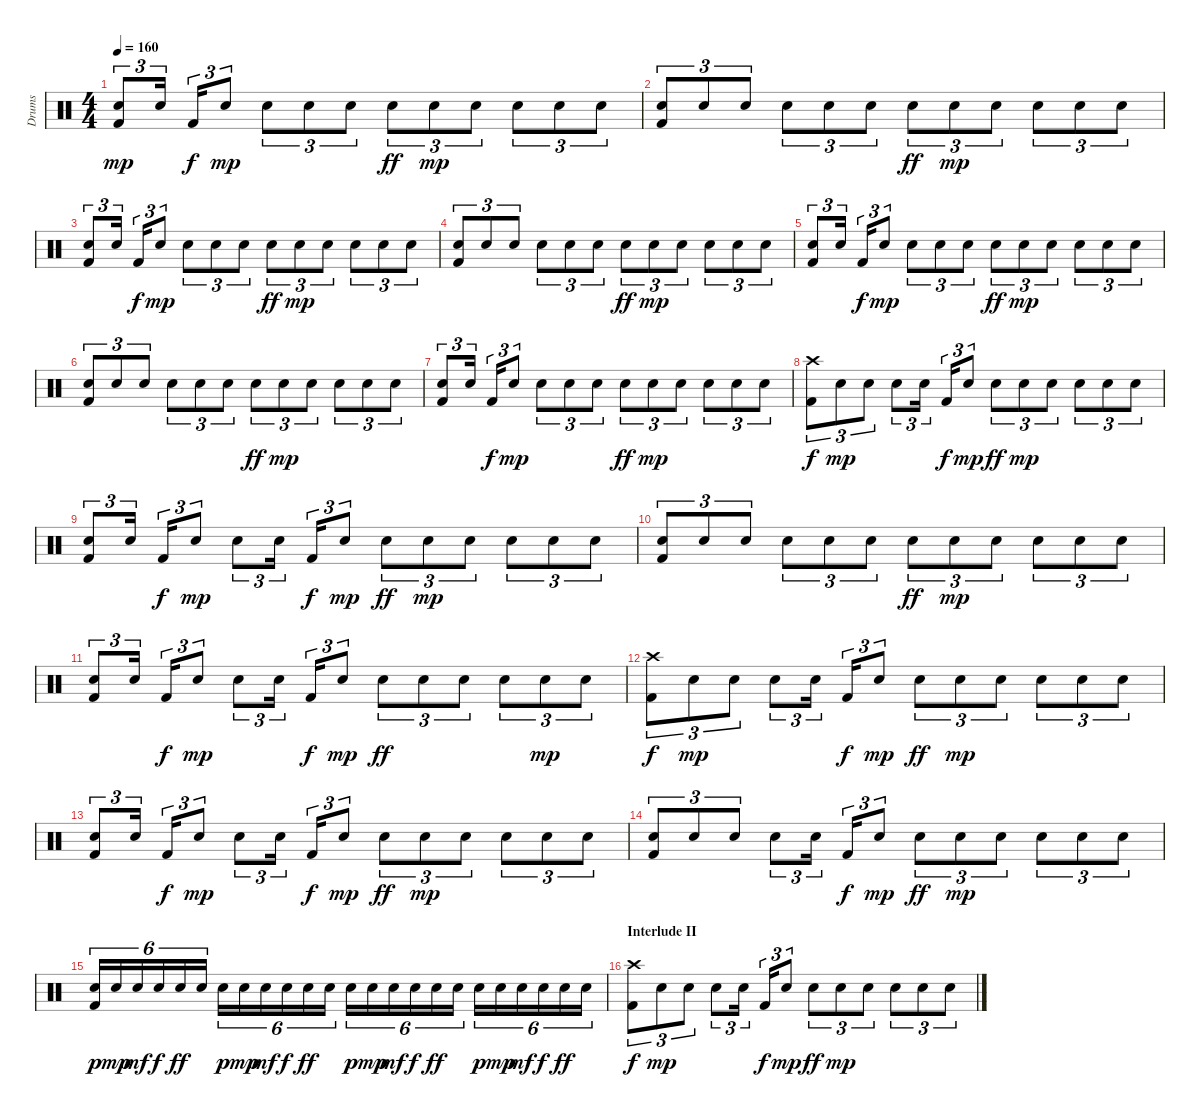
\track ("Drums" "Drums") {instrument percussion}
\staff {score}
\articulation defaults
\ts (4 4)
\tempo 160
\clef neutral
\ks c
("Snare (hit) 2" "Kick (hit) 2").8{tu (3 2) dy mp} "Snare (hit) 2".16{tu (3 2)} "Kick (hit) 2".16{tu (3 2) dy f} "Snare (hit) 2".8{tu (3 2) dy mp} "Snare (hit) 2".8{tu (3 2)} "Snare (hit) 2".8{tu (3 2)} "Snare (hit) 2".8{tu (3 2)} "Snare (hit) 2".8{tu (3 2) dy ff} "Snare (hit) 2".8{tu (3 2) dy mp} "Snare (hit) 2".8{tu (3 2)} "Snare (hit) 2".8{tu (3 2)} "Snare (hit) 2".8{tu (3 2)} "Snare (hit) 2".8{tu (3 2)} |
("Snare (hit) 2" "Kick (hit) 2").8{tu (3 2)} "Snare (hit) 2".8{tu (3 2)} "Snare (hit) 2".8{tu (3 2)} "Snare (hit) 2".8{tu (3 2)} "Snare (hit) 2".8{tu (3 2)} "Snare (hit) 2".8{tu (3 2)} "Snare (hit) 2".8{tu (3 2) dy ff} "Snare (hit) 2".8{tu (3 2) dy mp} "Snare (hit) 2".8{tu (3 2)} "Snare (hit) 2".8{tu (3 2)} "Snare (hit) 2".8{tu (3 2)} "Snare (hit) 2".8{tu (3 2)} |
("Snare (hit) 2" "Kick (hit) 2").8{tu (3 2)} "Snare (hit) 2".16{tu (3 2)} "Kick (hit) 2".16{tu (3 2) dy f} "Snare (hit) 2".8{tu (3 2) dy mp} "Snare (hit) 2".8{tu (3 2)} "Snare (hit) 2".8{tu (3 2)} "Snare (hit) 2".8{tu (3 2)} "Snare (hit) 2".8{tu (3 2) dy ff} "Snare (hit) 2".8{tu (3 2) dy mp} "Snare (hit) 2".8{tu (3 2)} "Snare (hit) 2".8{tu (3 2)} "Snare (hit) 2".8{tu (3 2)} "Snare (hit) 2".8{tu (3 2)} |
("Snare (hit) 2" "Kick (hit) 2").8{tu (3 2)} "Snare (hit) 2".8{tu (3 2)} "Snare (hit) 2".8{tu (3 2)} "Snare (hit) 2".8{tu (3 2)} "Snare (hit) 2".8{tu (3 2)} "Snare (hit) 2".8{tu (3 2)} "Snare (hit) 2".8{tu (3 2) dy ff} "Snare (hit) 2".8{tu (3 2) dy mp} "Snare (hit) 2".8{tu (3 2)} "Snare (hit) 2".8{tu (3 2)} "Snare (hit) 2".8{tu (3 2)} "Snare (hit) 2".8{tu (3 2)} |
("Snare (hit) 2" "Kick (hit) 2").8{tu (3 2)} "Snare (hit) 2".16{tu (3 2)} "Kick (hit) 2".16{tu (3 2) dy f} "Snare (hit) 2".8{tu (3 2) dy mp} "Snare (hit) 2".8{tu (3 2)} "Snare (hit) 2".8{tu (3 2)} "Snare (hit) 2".8{tu (3 2)} "Snare (hit) 2".8{tu (3 2) dy ff} "Snare (hit) 2".8{tu (3 2) dy mp} "Snare (hit) 2".8{tu (3 2)} "Snare (hit) 2".8{tu (3 2)} "Snare (hit) 2".8{tu (3 2)} "Snare (hit) 2".8{tu (3 2)} |
("Snare (hit) 2" "Kick (hit) 2").8{tu (3 2)} "Snare (hit) 2".8{tu (3 2)} "Snare (hit) 2".8{tu (3 2)} "Snare (hit) 2".8{tu (3 2)} "Snare (hit) 2".8{tu (3 2)} "Snare (hit) 2".8{tu (3 2)} "Snare (hit) 2".8{tu (3 2) dy ff} "Snare (hit) 2".8{tu (3 2) dy mp} "Snare (hit) 2".8{tu (3 2)} "Snare (hit) 2".8{tu (3 2)} "Snare (hit) 2".8{tu (3 2)} "Snare (hit) 2".8{tu (3 2)} |
("Snare (hit) 2" "Kick (hit) 2").8{tu (3 2)} "Snare (hit) 2".16{tu (3 2)} "Kick (hit) 2".16{tu (3 2) dy f} "Snare (hit) 2".8{tu (3 2) dy mp} "Snare (hit) 2".8{tu (3 2)} "Snare (hit) 2".8{tu (3 2)} "Snare (hit) 2".8{tu (3 2)} "Snare (hit) 2".8{tu (3 2) dy ff} "Snare (hit) 2".8{tu (3 2) dy mp} "Snare (hit) 2".8{tu (3 2)} "Snare (hit) 2".8{tu (3 2)} "Snare (hit) 2".8{tu (3 2)} "Snare (hit) 2".8{tu (3 2)} |
("Crash high (hit)" "Kick (hit) 2").8{tu (3 2) dy f} "Snare (hit) 2".8{tu (3 2) dy mp} "Snare (hit) 2".8{tu (3 2)} "Snare (hit) 2".8{tu (3 2)} "Snare (hit) 2".16{tu (3 2)} "Kick (hit) 2".16{tu (3 2) dy f} "Snare (hit) 2".8{tu (3 2) dy mp} "Snare (hit) 2".8{tu (3 2) dy ff} "Snare (hit) 2".8{tu (3 2) dy mp} "Snare (hit) 2".8{tu (3 2)} "Snare (hit) 2".8{tu (3 2)} "Snare (hit) 2".8{tu (3 2)} "Snare (hit) 2".8{tu (3 2)} |
("Snare (hit) 2" "Kick (hit) 2").8{tu (3 2)} "Snare (hit) 2".16{tu (3 2)} "Kick (hit) 2".16{tu (3 2) dy f} "Snare (hit) 2".8{tu (3 2) dy mp} "Snare (hit) 2".8{tu (3 2)} "Snare (hit) 2".16{tu (3 2)} "Kick (hit) 2".16{tu (3 2) dy f} "Snare (hit) 2".8{tu (3 2) dy mp} "Snare (hit) 2".8{tu (3 2) dy ff} "Snare (hit) 2".8{tu (3 2) dy mp} "Snare (hit) 2".8{tu (3 2)} "Snare (hit) 2".8{tu (3 2)} "Snare (hit) 2".8{tu (3 2)} "Snare (hit) 2".8{tu (3 2)} |
("Snare (hit) 2" "Kick (hit) 2").8{tu (3 2)} "Snare (hit) 2".8{tu (3 2)} "Snare (hit) 2".8{tu (3 2)} "Snare (hit) 2".8{tu (3 2)} "Snare (hit) 2".8{tu (3 2)} "Snare (hit) 2".8{tu (3 2)} "Snare (hit) 2".8{tu (3 2) dy ff} "Snare (hit) 2".8{tu (3 2) dy mp} "Snare (hit) 2".8{tu (3 2)} "Snare (hit) 2".8{tu (3 2)} "Snare (hit) 2".8{tu (3 2)} "Snare (hit) 2".8{tu (3 2)} |
("Snare (hit) 2" "Kick (hit) 2").8{tu (3 2)} "Snare (hit) 2".16{tu (3 2)} "Kick (hit) 2".16{tu (3 2) dy f} "Snare (hit) 2".8{tu (3 2) dy mp} "Snare (hit) 2".8{tu (3 2)} "Snare (hit) 2".16{tu (3 2)} "Kick (hit) 2".16{tu (3 2) dy f} "Snare (hit) 2".8{tu (3 2) dy mp} "Snare (hit) 2".8{tu (3 2) dy ff} "Snare (hit) 2".8{tu (3 2)} "Snare (hit) 2".8{tu (3 2)} "Snare (hit) 2".8{tu (3 2)} "Snare (hit) 2".8{tu (3 2) dy mp} "Snare (hit) 2".8{tu (3 2)} |
("Crash high (hit)" "Kick (hit) 2").8{tu (3 2) dy f} "Snare (hit) 2".8{tu (3 2) dy mp} "Snare (hit) 2".8{tu (3 2)} "Snare (hit) 2".8{tu (3 2)} "Snare (hit) 2".16{tu (3 2)} "Kick (hit) 2".16{tu (3 2) dy f} "Snare (hit) 2".8{tu (3 2) dy mp} "Snare (hit) 2".8{tu (3 2) dy ff} "Snare (hit) 2".8{tu (3 2) dy mp} "Snare (hit) 2".8{tu (3 2)} "Snare (hit) 2".8{tu (3 2)} "Snare (hit) 2".8{tu (3 2)} "Snare (hit) 2".8{tu (3 2)} |
("Snare (hit) 2" "Kick (hit) 2").8{tu (3 2)} "Snare (hit) 2".16{tu (3 2)} "Kick (hit) 2".16{tu (3 2) dy f} "Snare (hit) 2".8{tu (3 2) dy mp} "Snare (hit) 2".8{tu (3 2)} "Snare (hit) 2".16{tu (3 2)} "Kick (hit) 2".16{tu (3 2) dy f} "Snare (hit) 2".8{tu (3 2) dy mp} "Snare (hit) 2".8{tu (3 2) dy ff} "Snare (hit) 2".8{tu (3 2) dy mp} "Snare (hit) 2".8{tu (3 2)} "Snare (hit) 2".8{tu (3 2)} "Snare (hit) 2".8{tu (3 2)} "Snare (hit) 2".8{tu (3 2)} |
("Snare (hit) 2" "Kick (hit) 2").8{tu (3 2)} "Snare (hit) 2".8{tu (3 2)} "Snare (hit) 2".8{tu (3 2)} "Snare (hit) 2".8{tu (3 2)} "Snare (hit) 2".16{tu (3 2)} "Kick (hit) 2".16{tu (3 2) dy f} "Snare (hit) 2".8{tu (3 2) dy mp} "Snare (hit) 2".8{tu (3 2) dy ff} "Snare (hit) 2".8{tu (3 2) dy mp} "Snare (hit) 2".8{tu (3 2)} "Snare (hit) 2".8{tu (3 2)} "Snare (hit) 2".8{tu (3 2)} "Snare (hit) 2".8{tu (3 2)} |
("Snare (hit) 2" "Kick (hit) 2").16{tu (6 4) dy p} "Snare (hit) 2".16{tu (6 4) dy mp} "Snare (hit) 2".16{tu (6 4) dy mf} "Snare (hit) 2".16{tu (6 4) dy f} "Snare (hit) 2".16{tu (6 4) dy ff} "Snare (hit) 2".16{tu (6 4)} "Snare (hit) 2".16{tu (6 4) dy p} "Snare (hit) 2".16{tu (6 4) dy mp} "Snare (hit) 2".16{tu (6 4) dy mf} "Snare (hit) 2".16{tu (6 4) dy f} "Snare (hit) 2".16{tu (6 4) dy ff} "Snare (hit) 2".16{tu (6 4)} "Snare (hit) 2".16{tu (6 4) dy p} "Snare (hit) 2".16{tu (6 4) dy mp} "Snare (hit) 2".16{tu (6 4) dy mf} "Snare (hit) 2".16{tu (6 4) dy f} "Snare (hit) 2".16{tu (6 4) dy ff} "Snare (hit) 2".16{tu (6 4)} "Snare (hit) 2".16{tu (6 4) dy p} "Snare (hit) 2".16{tu (6 4) dy mp} "Snare (hit) 2".16{tu (6 4) dy mf} "Snare (hit) 2".16{tu (6 4) dy f} "Snare (hit) 2".16{tu (6 4) dy ff} "Snare (hit) 2".16{tu (6 4)} |
\section ("" "Interlude II")
("Crash high (hit)" "Kick (hit) 2").8{tu (3 2) dy f} "Snare (hit) 2".8{tu (3 2) dy mp} "Snare (hit) 2".8{tu (3 2)} "Snare (hit) 2".8{tu (3 2)} "Snare (hit) 2".16{tu (3 2)} "Kick (hit) 2".16{tu (3 2) dy f} "Snare (hit) 2".8{tu (3 2) dy mp} "Snare (hit) 2".8{tu (3 2) dy ff} "Snare (hit) 2".8{tu (3 2) dy mp} "Snare (hit) 2".8{tu (3 2)} "Snare (hit) 2".8{tu (3 2)} "Snare (hit) 2".8{tu (3 2)} "Snare (hit) 2".8{tu (3 2)}
